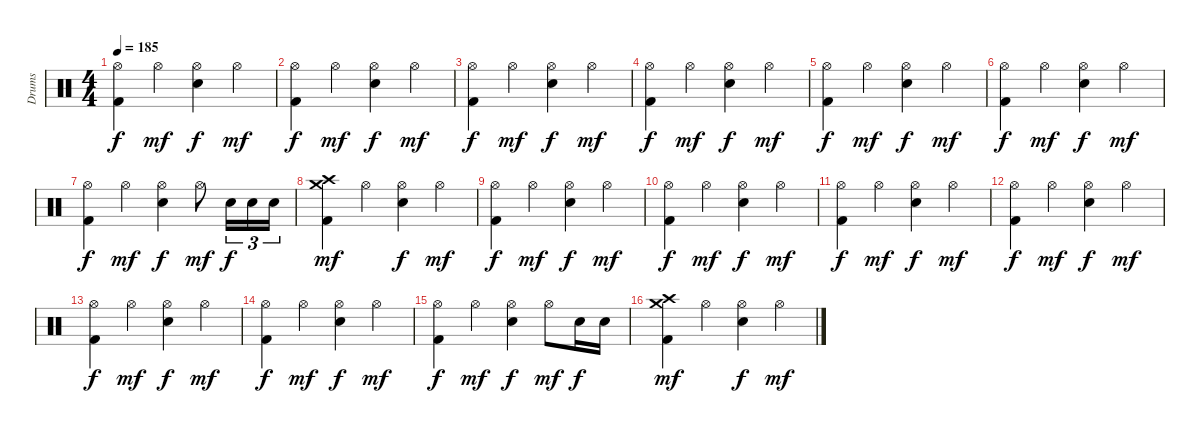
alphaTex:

\track ("Drums" "Drums") {instrument percussion}
\staff {score}
\articulation defaults
\ts (4 4)
\tempo 185
\clef neutral
\ks c
("Hi-Hat (open)" "Kick (hit) 2").4{dy f} "Hi-Hat (open)".4{dy mf} ("Hi-Hat (open)" "Snare (hit) 2").4{dy f} "Hi-Hat (open)".4{dy mf} |
("Hi-Hat (open)" "Kick (hit) 2").4{dy f} "Hi-Hat (open)".4{dy mf} ("Hi-Hat (open)" "Snare (hit) 2").4{dy f} "Hi-Hat (open)".4{dy mf} |
("Hi-Hat (open)" "Kick (hit) 2").4{dy f} "Hi-Hat (open)".4{dy mf} ("Hi-Hat (open)" "Snare (hit) 2").4{dy f} "Hi-Hat (open)".4{dy mf} |
("Hi-Hat (open)" "Kick (hit) 2").4{dy f} "Hi-Hat (open)".4{dy mf} ("Hi-Hat (open)" "Snare (hit) 2").4{dy f} "Hi-Hat (open)".4{dy mf} |
("Hi-Hat (open)" "Kick (hit) 2").4{dy f} "Hi-Hat (open)".4{dy mf} ("Hi-Hat (open)" "Snare (hit) 2").4{dy f} "Hi-Hat (open)".4{dy mf} |
("Hi-Hat (open)" "Kick (hit) 2").4{dy f} "Hi-Hat (open)".4{dy mf} ("Hi-Hat (open)" "Snare (hit) 2").4{dy f} "Hi-Hat (open)".4{dy mf} |
("Hi-Hat (open)" "Kick (hit) 2").4{dy f} "Hi-Hat (open)".4{dy mf} ("Hi-Hat (open)" "Snare (hit) 2").4{dy f} "Hi-Hat (open)".8{dy mf} "Snare (hit) 2".16{tu (3 2) dy f} "Snare (hit) 2".16{tu (3 2)} "Snare (hit) 2".16{tu (3 2)} |
("Crash high (hit)" "Crash medium (hit)" "Kick (hit) 2").4{dy mf} "Hi-Hat (open)".4 ("Hi-Hat (open)" "Snare (hit) 2").4{dy f} "Hi-Hat (open)".4{dy mf} |
("Hi-Hat (open)" "Kick (hit) 2").4{dy f} "Hi-Hat (open)".4{dy mf} ("Hi-Hat (open)" "Snare (hit) 2").4{dy f} "Hi-Hat (open)".4{dy mf} |
("Hi-Hat (open)" "Kick (hit) 2").4{dy f} "Hi-Hat (open)".4{dy mf} ("Hi-Hat (open)" "Snare (hit) 2").4{dy f} "Hi-Hat (open)".4{dy mf} |
("Hi-Hat (open)" "Kick (hit) 2").4{dy f} "Hi-Hat (open)".4{dy mf} ("Hi-Hat (open)" "Snare (hit) 2").4{dy f} "Hi-Hat (open)".4{dy mf} |
("Hi-Hat (open)" "Kick (hit) 2").4{dy f} "Hi-Hat (open)".4{dy mf} ("Hi-Hat (open)" "Snare (hit) 2").4{dy f} "Hi-Hat (open)".4{dy mf} |
("Hi-Hat (open)" "Kick (hit) 2").4{dy f} "Hi-Hat (open)".4{dy mf} ("Hi-Hat (open)" "Snare (hit) 2").4{dy f} "Hi-Hat (open)".4{dy mf} |
("Hi-Hat (open)" "Kick (hit) 2").4{dy f} "Hi-Hat (open)".4{dy mf} ("Hi-Hat (open)" "Snare (hit) 2").4{dy f} "Hi-Hat (open)".4{dy mf} |
("Hi-Hat (open)" "Kick (hit) 2").4{dy f} "Hi-Hat (open)".4{dy mf} ("Hi-Hat (open)" "Snare (hit) 2").4{dy f} "Hi-Hat (open)".8{dy mf} "Snare (hit) 2".16{dy f} "Snare (hit) 2".16 |
("Crash high (hit)" "Crash medium (hit)" "Kick (hit) 2").4{dy mf} "Hi-Hat (open)".4 ("Hi-Hat (open)" "Snare (hit) 2").4{dy f} "Hi-Hat (open)".4{dy mf}
